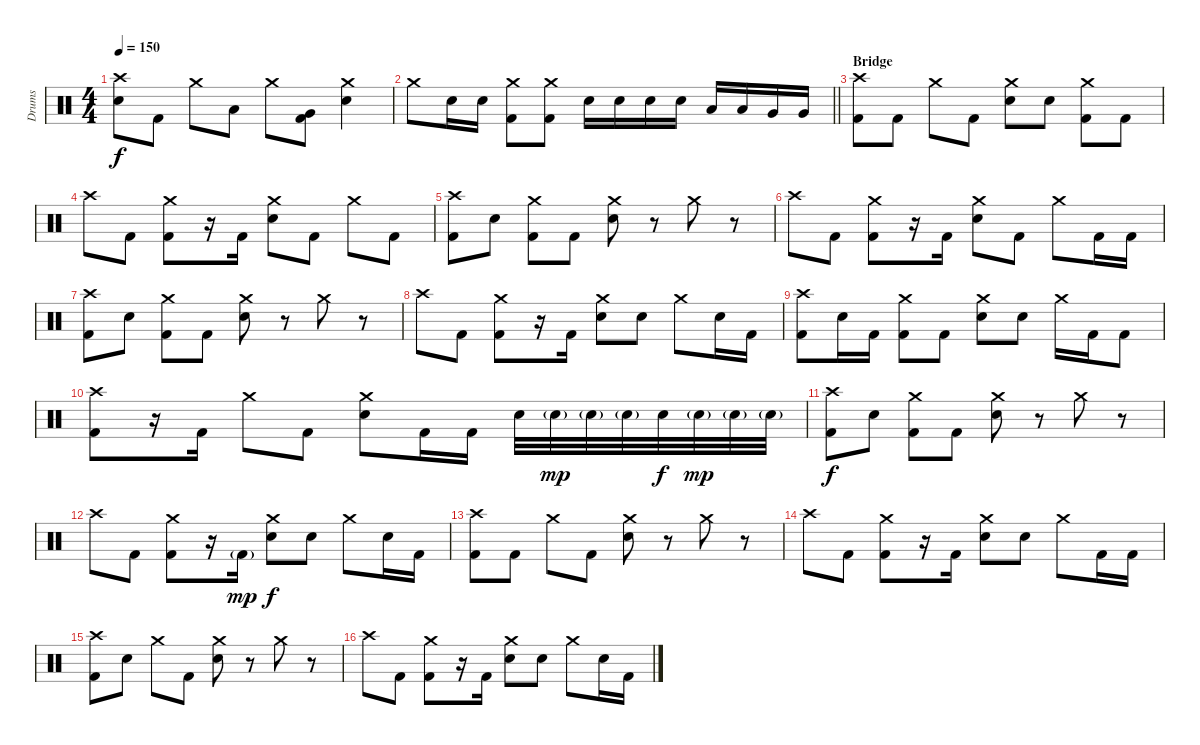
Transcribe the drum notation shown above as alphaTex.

\track ("Drums" "Drums") {instrument percussion}
\staff {score}
\articulation defaults
\ts (4 4)
\tempo 150
\clef neutral
\ks c
("Crash high (hit)" "Snare (hit) 2").8{dy f} "Kick (hit) 2".8 "Crash medium (hit)".8 "Low Tom (hit)".8 "Crash medium (hit)".8 ("Very Low Tom (hit)" "Kick (hit) 2").8 ("Crash medium (hit)" "Snare (hit) 2").4 |
\barLineRight lightlight "Crash medium (hit)".8 "Snare (hit) 2".16 "Snare (hit) 2".16
("Crash medium (hit)" "Kick (hit) 2").8 ("Crash medium (hit)" "Kick (hit) 2").8 "Snare (hit) 2".16 "Snare (hit) 2".16 "Snare (hit) 2".16 "Snare (hit) 2".16 "Low Tom (hit)".16 "Low Tom (hit)".16 "Very Low Tom (hit)".16 "Very Low Tom (hit)".16 |
\section ("" "Bridge")
("Crash high (hit)" "Kick (hit) 2").8 "Kick (hit) 2".8 "Crash medium (hit)".8 "Kick (hit) 2".8 ("Crash medium (hit)" "Snare (hit) 2").8 "Snare (hit) 2".8 ("Crash medium (hit)" "Kick (hit) 2").8 "Kick (hit) 2".8 |
"Crash high (hit)".8 "Kick (hit) 2".8 ("Crash medium (hit)" "Kick (hit) 2").8 r.16 "Kick (hit) 2".16 ("Crash medium (hit)" "Snare (hit) 2").8 "Kick (hit) 2".8 "Crash medium (hit)".8 "Kick (hit) 2".8 |
("Crash high (hit)" "Kick (hit) 2").8 "Snare (hit) 2".8 ("Crash medium (hit)" "Kick (hit) 2").8 "Kick (hit) 2".8 ("Crash medium (hit)" "Snare (hit) 2").8 r.8 "Crash medium (hit)".8 r.8 |
"Crash high (hit)".8 "Kick (hit) 2".8 ("Crash medium (hit)" "Kick (hit) 2").8 r.16 "Kick (hit) 2".16 ("Crash medium (hit)" "Snare (hit) 2").8 "Kick (hit) 2".8 "Crash medium (hit)".8 "Kick (hit) 2".16 "Kick (hit) 2".16 |
("Crash high (hit)" "Kick (hit) 2").8 "Snare (hit) 2".8 ("Crash medium (hit)" "Kick (hit) 2").8 "Kick (hit) 2".8 ("Crash medium (hit)" "Snare (hit) 2").8 r.8 "Crash medium (hit)".8 r.8 |
"Crash high (hit)".8 "Kick (hit) 2".8 ("Crash medium (hit)" "Kick (hit) 2").8 r.16 "Kick (hit) 2".16 ("Crash medium (hit)" "Snare (hit) 2").8 "Snare (hit) 2".8 "Crash medium (hit)".8 "Snare (hit) 2".16 "Kick (hit) 2".16 |
("Crash high (hit)" "Kick (hit) 2").8 "Snare (hit) 2".16 "Kick (hit) 2".16 ("Crash medium (hit)" "Kick (hit) 2").8 "Kick (hit) 2".8 ("Crash medium (hit)" "Snare (hit) 2").8 "Snare (hit) 2".8 "Crash medium (hit)".16 "Kick (hit) 2".16 "Kick (hit) 2".8 |
("Crash high (hit)" "Kick (hit) 2").8 r.16 "Kick (hit) 2".16 "Crash medium (hit)".8 "Kick (hit) 2".8 ("Crash medium (hit)" "Snare (hit) 2").8 "Kick (hit) 2".16 "Kick (hit) 2".16 "Snare (hit) 2".32 "Snare (hit) 2"{g}.32{dy mp} "Snare (hit) 2"{g}.32 "Snare (hit) 2"{g}.32 "Snare (hit) 2".32{dy f} "Snare (hit) 2"{g}.32{dy mp} "Snare (hit) 2"{g}.32 "Snare (hit) 2"{g}.32 |
("Crash high (hit)" "Kick (hit) 2").8{dy f} "Snare (hit) 2".8 ("Crash medium (hit)" "Kick (hit) 2").8 "Kick (hit) 2".8 ("Crash medium (hit)" "Snare (hit) 2").8 r.8 "Crash medium (hit)".8 r.8 |
"Crash high (hit)".8 "Kick (hit) 2".8 ("Crash medium (hit)" "Kick (hit) 2").8 r.16 "Kick (hit) 2"{g}.16{dy mp} ("Crash medium (hit)" "Snare (hit) 2").8{dy f} "Snare (hit) 2".8 "Crash medium (hit)".8 "Snare (hit) 2".16 "Kick (hit) 2".16 |
("Crash high (hit)" "Kick (hit) 2").8 "Kick (hit) 2".8 "Crash medium (hit)".8 "Kick (hit) 2".8 ("Crash medium (hit)" "Snare (hit) 2").8 r.8 "Crash medium (hit)".8 r.8 |
"Crash high (hit)".8 "Kick (hit) 2".8 ("Crash medium (hit)" "Kick (hit) 2").8 r.16 "Kick (hit) 2".16 ("Crash medium (hit)" "Snare (hit) 2").8 "Snare (hit) 2".8 "Crash medium (hit)".8 "Kick (hit) 2".16 "Kick (hit) 2".16 |
("Crash high (hit)" "Kick (hit) 2").8 "Snare (hit) 2".8 "Crash medium (hit)".8 "Kick (hit) 2".8 ("Crash medium (hit)" "Snare (hit) 2").8 r.8 "Crash medium (hit)".8 r.8 |
"Crash high (hit)".8 "Kick (hit) 2".8 ("Crash medium (hit)" "Kick (hit) 2").8 r.16 "Kick (hit) 2".16 ("Crash medium (hit)" "Snare (hit) 2").8 "Snare (hit) 2".8 "Crash medium (hit)".8 "Snare (hit) 2".16 "Kick (hit) 2".16
